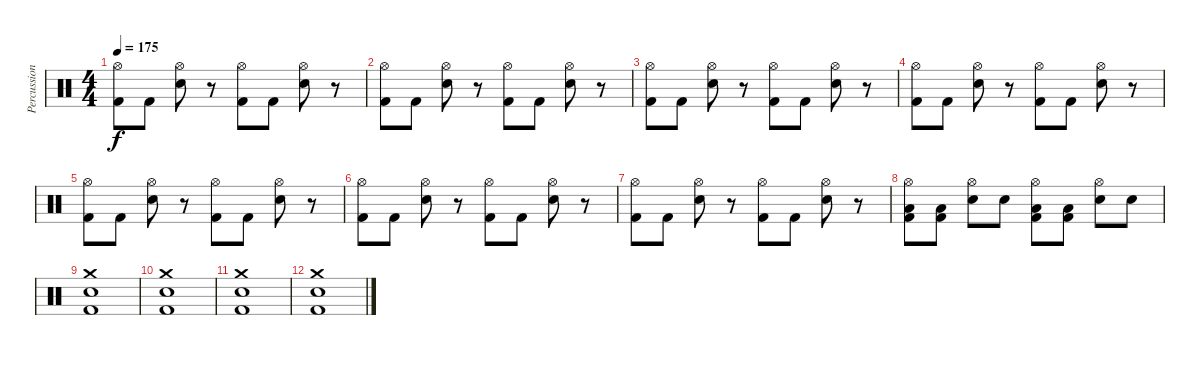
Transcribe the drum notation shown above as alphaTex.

\track ("Percussions" "Percussion") {instrument percussion}
\staff {score}
\articulation defaults
\ts (4 4)
\tempo 175
\clef neutral
\ks c
("Hi-Hat (open)" "Kick (hit) 2").8{dy f} "Kick (hit) 2".8 ("Hi-Hat (open)" "Snare (hit) 2").8 r.8 ("Hi-Hat (open)" "Kick (hit) 2").8 "Kick (hit) 2".8 ("Hi-Hat (open)" "Snare (hit) 2").8 r.8 |
("Hi-Hat (open)" "Kick (hit) 2").8 "Kick (hit) 2".8 ("Hi-Hat (open)" "Snare (hit) 2").8 r.8 ("Hi-Hat (open)" "Kick (hit) 2").8 "Kick (hit) 2".8 ("Hi-Hat (open)" "Snare (hit) 2").8 r.8 |
("Hi-Hat (open)" "Kick (hit) 2").8 "Kick (hit) 2".8 ("Hi-Hat (open)" "Snare (hit) 2").8 r.8 ("Hi-Hat (open)" "Kick (hit) 2").8 "Kick (hit) 2".8 ("Hi-Hat (open)" "Snare (hit) 2").8 r.8 |
("Hi-Hat (open)" "Kick (hit) 2").8 "Kick (hit) 2".8 ("Hi-Hat (open)" "Snare (hit) 2").8 r.8 ("Hi-Hat (open)" "Kick (hit) 2").8 "Kick (hit) 2".8 ("Hi-Hat (open)" "Snare (hit) 2").8 r.8 |
("Hi-Hat (open)" "Kick (hit) 2").8 "Kick (hit) 2".8 ("Hi-Hat (open)" "Snare (hit) 2").8 r.8 ("Hi-Hat (open)" "Kick (hit) 2").8 "Kick (hit) 2".8 ("Hi-Hat (open)" "Snare (hit) 2").8 r.8 |
("Hi-Hat (open)" "Kick (hit) 2").8 "Kick (hit) 2".8 ("Hi-Hat (open)" "Snare (hit) 2").8 r.8 ("Hi-Hat (open)" "Kick (hit) 2").8 "Kick (hit) 2".8 ("Hi-Hat (open)" "Snare (hit) 2").8 r.8 |
("Hi-Hat (open)" "Kick (hit) 2").8 "Kick (hit) 2".8 ("Hi-Hat (open)" "Snare (hit) 2").8 r.8 ("Hi-Hat (open)" "Kick (hit) 2").8 "Kick (hit) 2".8 ("Hi-Hat (open)" "Snare (hit) 2").8 r.8 |
("Hi-Hat (open)" "Low Tom (hit)" "Kick (hit) 2").8 ("Low Tom (hit)" "Kick (hit) 2").8 ("Hi-Hat (open)" "Snare (hit) 2").8 "Snare (hit) 2".8 ("Hi-Hat (open)" "Low Tom (hit)" "Kick (hit) 2").8 ("Low Tom (hit)" "Kick (hit) 2").8 ("Hi-Hat (open)" "Snare (hit) 2").8 "Snare (hit) 2".8 |
("Crash medium (hit)" "Snare (hit) 2" "Kick (hit) 2").1 |
("Crash medium (hit)" "Snare (hit) 2" "Kick (hit) 2").1 |
("Crash medium (hit)" "Snare (hit) 2" "Kick (hit) 2").1 |
("Crash medium (hit)" "Snare (hit) 2" "Kick (hit) 2").1
